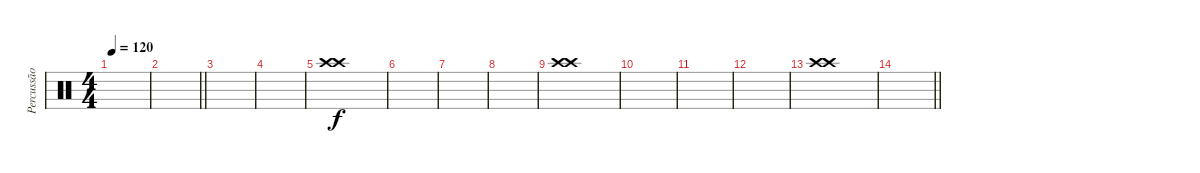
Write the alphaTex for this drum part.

\track ("Percussão" "Percussão") {instrument percussion}
\staff {score}
\articulation defaults
\ts (4 4)
\tempo 120
\clef neutral
\ks c
|
\barLineRight lightlight
|
|
|
("Crash high (hit)" "Crash high (hit)").1 |
|
|
|
("Crash high (hit)" "Crash high (hit)").1 |
|
|
|
("Crash high (hit)" "Crash high (hit)").1 |
\barLineRight lightlight
